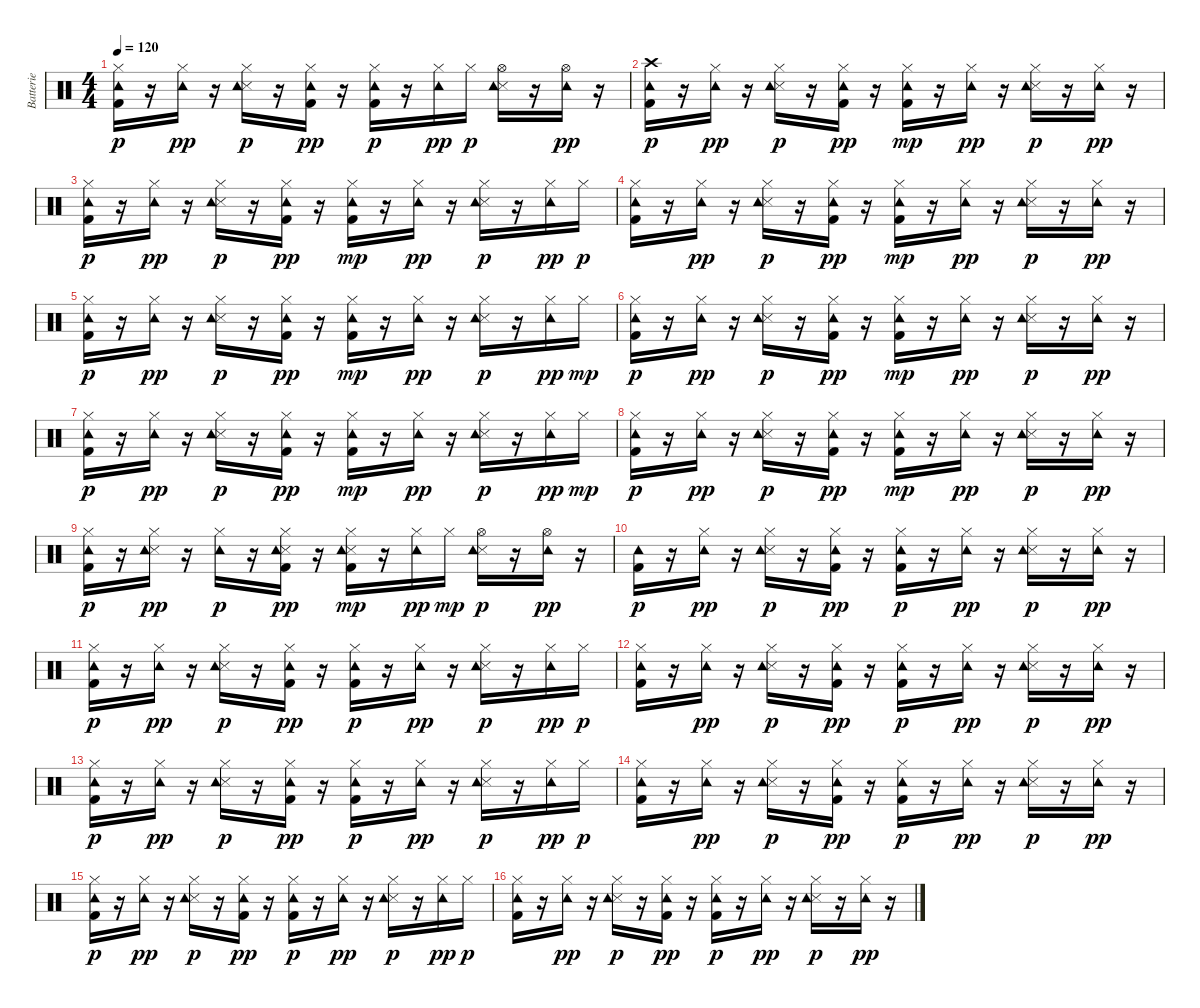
\track ("Batterie" "Batterie") {instrument percussion}
\staff {score}
\articulation defaults
\ts (4 4)
\tempo 120
\clef neutral
\ks c
("Kick (hit) 2" "Hi-Hat (closed)" "Tambourine (hit)").16{dy p} r.16 ("Hi-Hat (closed)" "Tambourine (hit)").16{dy pp} r.16 ("Hi-Hat (closed)" "Snare (side stick) 3" "Tambourine (hit)").16{dy p} r.16 ("Kick (hit) 2" "Hi-Hat (closed)" "Tambourine (hit)").16{dy pp} r.16 ("Kick (hit) 2" "Hi-Hat (closed)" "Tambourine (hit)").16{dy p} r.16 ("Hi-Hat (closed)" "Tambourine (hit)").16{dy pp} "Hi-Hat (closed)".16{dy p} ("Hi-Hat (open)" "Snare (side stick) 3" "Tambourine (hit)").16 r.16 ("Hi-Hat (open)" "Tambourine (hit)").16{dy pp} r.16 |
("Kick (hit) 2" "Crash high (hit)" "Tambourine (hit)").16{dy p} r.16 ("Hi-Hat (closed)" "Tambourine (hit)").16{dy pp} r.16 ("Hi-Hat (closed)" "Snare (side stick) 3" "Tambourine (hit)").16{dy p} r.16 ("Kick (hit) 2" "Hi-Hat (closed)" "Tambourine (hit)").16{dy pp} r.16 ("Kick (hit) 2" "Hi-Hat (closed)" "Tambourine (hit)").16{dy mp} r.16 ("Hi-Hat (closed)" "Tambourine (hit)").16{dy pp} r.16 ("Hi-Hat (closed)" "Snare (side stick) 3" "Tambourine (hit)").16{dy p} r.16 ("Hi-Hat (closed)" "Tambourine (hit)").16{dy pp} r.16 |
("Kick (hit) 2" "Hi-Hat (closed)" "Tambourine (hit)").16{dy p} r.16 ("Hi-Hat (closed)" "Tambourine (hit)").16{dy pp} r.16 ("Hi-Hat (closed)" "Snare (side stick) 3" "Tambourine (hit)").16{dy p} r.16 ("Kick (hit) 2" "Hi-Hat (closed)" "Tambourine (hit)").16{dy pp} r.16 ("Kick (hit) 2" "Hi-Hat (closed)" "Tambourine (hit)").16{dy mp} r.16 ("Hi-Hat (closed)" "Tambourine (hit)").16{dy pp} r.16 ("Hi-Hat (closed)" "Snare (side stick) 3" "Tambourine (hit)").16{dy p} r.16 ("Hi-Hat (closed)" "Tambourine (hit)").16{dy pp} "Hi-Hat (closed)".16{dy p} |
("Kick (hit) 2" "Hi-Hat (closed)" "Tambourine (hit)").16 r.16 ("Hi-Hat (closed)" "Tambourine (hit)").16{dy pp} r.16 ("Hi-Hat (closed)" "Snare (side stick) 3" "Tambourine (hit)").16{dy p} r.16 ("Kick (hit) 2" "Hi-Hat (closed)" "Tambourine (hit)").16{dy pp} r.16 ("Kick (hit) 2" "Hi-Hat (closed)" "Tambourine (hit)").16{dy mp} r.16 ("Hi-Hat (closed)" "Tambourine (hit)").16{dy pp} r.16 ("Hi-Hat (closed)" "Snare (side stick) 3" "Tambourine (hit)").16{dy p} r.16 ("Hi-Hat (closed)" "Tambourine (hit)").16{dy pp} r.16 |
("Kick (hit) 2" "Hi-Hat (closed)" "Tambourine (hit)").16{dy p} r.16 ("Hi-Hat (closed)" "Tambourine (hit)").16{dy pp} r.16 ("Hi-Hat (closed)" "Snare (side stick) 3" "Tambourine (hit)").16{dy p} r.16 ("Kick (hit) 2" "Hi-Hat (closed)" "Tambourine (hit)").16{dy pp} r.16 ("Kick (hit) 2" "Hi-Hat (closed)" "Tambourine (hit)").16{dy mp} r.16 ("Hi-Hat (closed)" "Tambourine (hit)").16{dy pp} r.16 ("Hi-Hat (closed)" "Snare (side stick) 3" "Tambourine (hit)").16{dy p} r.16 ("Hi-Hat (closed)" "Tambourine (hit)").16{dy pp} "Hi-Hat (closed)".16{dy mp} |
("Kick (hit) 2" "Hi-Hat (closed)" "Tambourine (hit)").16{dy p} r.16 ("Hi-Hat (closed)" "Tambourine (hit)").16{dy pp} r.16 ("Hi-Hat (closed)" "Snare (side stick) 3" "Tambourine (hit)").16{dy p} r.16 ("Kick (hit) 2" "Hi-Hat (closed)" "Tambourine (hit)").16{dy pp} r.16 ("Kick (hit) 2" "Hi-Hat (closed)" "Tambourine (hit)").16{dy mp} r.16 ("Hi-Hat (closed)" "Tambourine (hit)").16{dy pp} r.16 ("Hi-Hat (closed)" "Snare (side stick) 3" "Tambourine (hit)").16{dy p} r.16 ("Hi-Hat (closed)" "Tambourine (hit)").16{dy pp} r.16 |
("Kick (hit) 2" "Hi-Hat (closed)" "Tambourine (hit)").16{dy p} r.16 ("Hi-Hat (closed)" "Tambourine (hit)").16{dy pp} r.16 ("Hi-Hat (closed)" "Snare (side stick) 3" "Tambourine (hit)").16{dy p} r.16 ("Kick (hit) 2" "Hi-Hat (closed)" "Tambourine (hit)").16{dy pp} r.16 ("Kick (hit) 2" "Hi-Hat (closed)" "Tambourine (hit)").16{dy mp} r.16 ("Hi-Hat (closed)" "Tambourine (hit)").16{dy pp} r.16 ("Hi-Hat (closed)" "Snare (side stick) 3" "Tambourine (hit)").16{dy p} r.16 ("Hi-Hat (closed)" "Tambourine (hit)").16{dy pp} "Hi-Hat (closed)".16{dy mp} |
("Kick (hit) 2" "Hi-Hat (closed)" "Tambourine (hit)").16{dy p} r.16 ("Hi-Hat (closed)" "Tambourine (hit)").16{dy pp} r.16 ("Hi-Hat (closed)" "Snare (side stick) 3" "Tambourine (hit)").16{dy p} r.16 ("Kick (hit) 2" "Hi-Hat (closed)" "Tambourine (hit)").16{dy pp} r.16 ("Kick (hit) 2" "Hi-Hat (closed)" "Tambourine (hit)").16{dy mp} r.16 ("Hi-Hat (closed)" "Tambourine (hit)").16{dy pp} r.16 ("Hi-Hat (closed)" "Snare (side stick) 3" "Tambourine (hit)").16{dy p} r.16 ("Hi-Hat (closed)" "Tambourine (hit)").16{dy pp} r.16 |
("Kick (hit) 2" "Hi-Hat (closed)" "Tambourine (hit)").16{dy p} r.16 ("Hi-Hat (closed)" "Snare (side stick) 3" "Tambourine (hit)").16{dy pp} r.16 ("Hi-Hat (closed)" "Tambourine (hit)").16{dy p} r.16 ("Kick (hit) 2" "Hi-Hat (closed)" "Snare (side stick) 3" "Tambourine (hit)").16{dy pp} r.16 ("Kick (hit) 2" "Hi-Hat (closed)" "Snare (side stick) 3" "Tambourine (hit)").16{dy mp} r.16 ("Hi-Hat (closed)" "Tambourine (hit)").16{dy pp} "Hi-Hat (closed)".16{dy mp} ("Hi-Hat (open)" "Snare (side stick) 3" "Tambourine (hit)").16{dy p} r.16 ("Hi-Hat (open)" "Tambourine (hit)").16{dy pp} r.16 |
("Kick (hit) 2" "Tambourine (hit)").16{dy p} r.16 ("Hi-Hat (closed)" "Tambourine (hit)").16{dy pp} r.16 ("Hi-Hat (closed)" "Snare (side stick) 3" "Tambourine (hit)").16{dy p} r.16 ("Kick (hit) 2" "Hi-Hat (closed)" "Tambourine (hit)").16{dy pp} r.16 ("Kick (hit) 2" "Hi-Hat (closed)" "Tambourine (hit)").16{dy p} r.16 ("Hi-Hat (closed)" "Tambourine (hit)").16{dy pp} r.16 ("Hi-Hat (closed)" "Snare (side stick) 3" "Tambourine (hit)").16{dy p} r.16 ("Hi-Hat (closed)" "Tambourine (hit)").16{dy pp} r.16 |
("Kick (hit) 2" "Hi-Hat (closed)" "Tambourine (hit)").16{dy p} r.16 ("Hi-Hat (closed)" "Tambourine (hit)").16{dy pp} r.16 ("Hi-Hat (closed)" "Snare (side stick) 3" "Tambourine (hit)").16{dy p} r.16 ("Kick (hit) 2" "Hi-Hat (closed)" "Tambourine (hit)").16{dy pp} r.16 ("Kick (hit) 2" "Hi-Hat (closed)" "Tambourine (hit)").16{dy p} r.16 ("Hi-Hat (closed)" "Tambourine (hit)").16{dy pp} r.16 ("Hi-Hat (closed)" "Snare (side stick) 3" "Tambourine (hit)").16{dy p} r.16 ("Hi-Hat (closed)" "Tambourine (hit)").16{dy pp} "Hi-Hat (closed)".16{dy p} |
("Kick (hit) 2" "Hi-Hat (closed)" "Tambourine (hit)").16 r.16 ("Hi-Hat (closed)" "Tambourine (hit)").16{dy pp} r.16 ("Hi-Hat (closed)" "Snare (side stick) 3" "Tambourine (hit)").16{dy p} r.16 ("Kick (hit) 2" "Hi-Hat (closed)" "Tambourine (hit)").16{dy pp} r.16 ("Kick (hit) 2" "Hi-Hat (closed)" "Tambourine (hit)").16{dy p} r.16 ("Hi-Hat (closed)" "Tambourine (hit)").16{dy pp} r.16 ("Hi-Hat (closed)" "Snare (side stick) 3" "Tambourine (hit)").16{dy p} r.16 ("Hi-Hat (closed)" "Tambourine (hit)").16{dy pp} r.16 |
("Kick (hit) 2" "Hi-Hat (closed)" "Tambourine (hit)").16{dy p} r.16 ("Hi-Hat (closed)" "Tambourine (hit)").16{dy pp} r.16 ("Hi-Hat (closed)" "Snare (side stick) 3" "Tambourine (hit)").16{dy p} r.16 ("Kick (hit) 2" "Hi-Hat (closed)" "Tambourine (hit)").16{dy pp} r.16 ("Kick (hit) 2" "Hi-Hat (closed)" "Tambourine (hit)").16{dy p} r.16 ("Hi-Hat (closed)" "Tambourine (hit)").16{dy pp} r.16 ("Hi-Hat (closed)" "Snare (side stick) 3" "Tambourine (hit)").16{dy p} r.16 ("Hi-Hat (closed)" "Tambourine (hit)").16{dy pp} "Hi-Hat (closed)".16{dy p} |
("Kick (hit) 2" "Hi-Hat (closed)" "Tambourine (hit)").16 r.16 ("Hi-Hat (closed)" "Tambourine (hit)").16{dy pp} r.16 ("Hi-Hat (closed)" "Snare (side stick) 3" "Tambourine (hit)").16{dy p} r.16 ("Kick (hit) 2" "Hi-Hat (closed)" "Tambourine (hit)").16{dy pp} r.16 ("Kick (hit) 2" "Hi-Hat (closed)" "Tambourine (hit)").16{dy p} r.16 ("Hi-Hat (closed)" "Tambourine (hit)").16{dy pp} r.16 ("Hi-Hat (closed)" "Snare (side stick) 3" "Tambourine (hit)").16{dy p} r.16 ("Hi-Hat (closed)" "Tambourine (hit)").16{dy pp} r.16 |
("Kick (hit) 2" "Hi-Hat (closed)" "Tambourine (hit)").16{dy p} r.16 ("Hi-Hat (closed)" "Tambourine (hit)").16{dy pp} r.16 ("Hi-Hat (closed)" "Snare (side stick) 3" "Tambourine (hit)").16{dy p} r.16 ("Kick (hit) 2" "Hi-Hat (closed)" "Tambourine (hit)").16{dy pp} r.16 ("Kick (hit) 2" "Hi-Hat (closed)" "Tambourine (hit)").16{dy p} r.16 ("Hi-Hat (closed)" "Tambourine (hit)").16{dy pp} r.16 ("Hi-Hat (closed)" "Snare (side stick) 3" "Tambourine (hit)").16{dy p} r.16 ("Hi-Hat (closed)" "Tambourine (hit)").16{dy pp} "Hi-Hat (closed)".16{dy p} |
("Kick (hit) 2" "Hi-Hat (closed)" "Tambourine (hit)").16 r.16 ("Hi-Hat (closed)" "Tambourine (hit)").16{dy pp} r.16 ("Hi-Hat (closed)" "Snare (side stick) 3" "Tambourine (hit)").16{dy p} r.16 ("Kick (hit) 2" "Hi-Hat (closed)" "Tambourine (hit)").16{dy pp} r.16 ("Kick (hit) 2" "Hi-Hat (closed)" "Tambourine (hit)").16{dy p} r.16 ("Hi-Hat (closed)" "Tambourine (hit)").16{dy pp} r.16 ("Hi-Hat (closed)" "Snare (side stick) 3" "Tambourine (hit)").16{dy p} r.16 ("Hi-Hat (closed)" "Tambourine (hit)").16{dy pp} r.16
